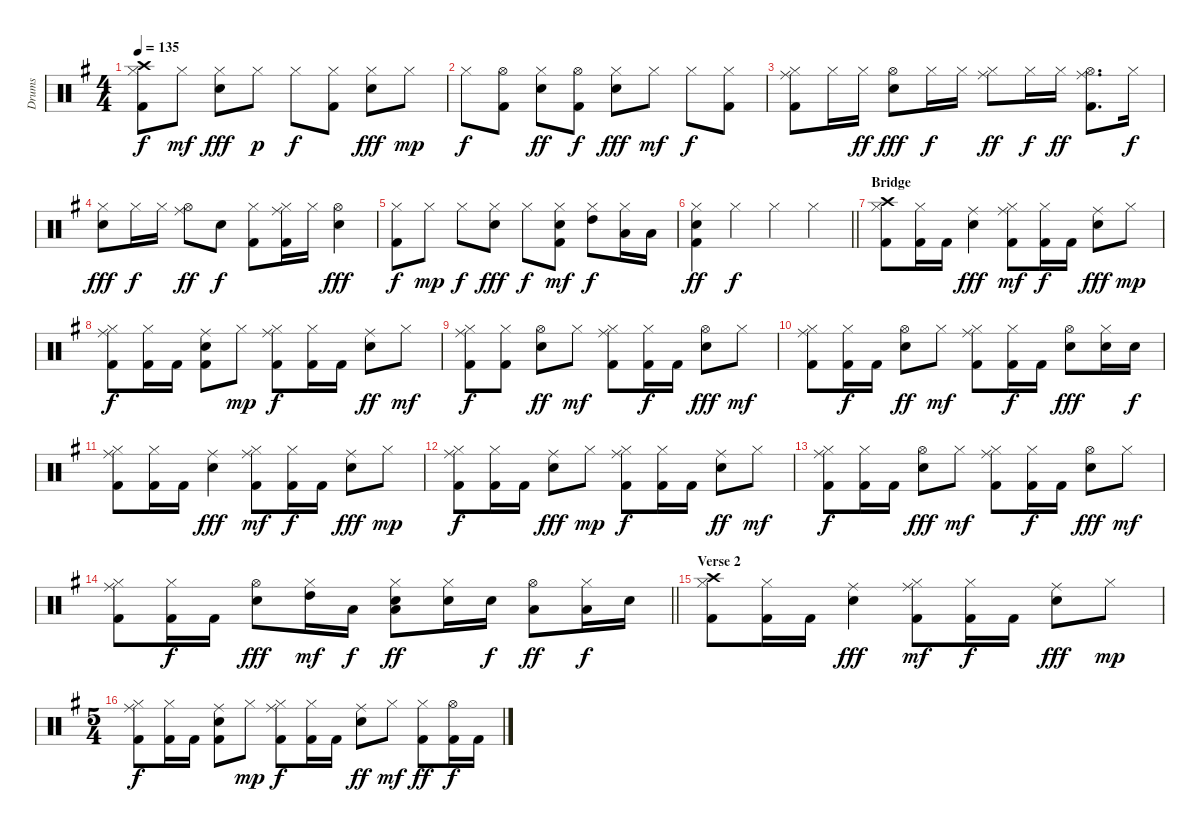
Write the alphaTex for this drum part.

\track ("Drums" "Drums") {instrument percussion}
\staff {score}
\articulation defaults
\ts (4 4)
\tempo 135
\clef neutral
\ks g
("Hi-Hat (closed)" "Crash high (hit)" "Kick (hit) 2").8{dy f} "Hi-Hat (closed)".8{dy mf} ("Hi-Hat (closed)" "Electric Snare (hit)").8{dy fff} "Hi-Hat (closed)".8{dy p} "Hi-Hat (closed)".8{dy f} ("Hi-Hat (closed)" "Kick (hit) 2").8 ("Hi-Hat (closed)" "Electric Snare (hit)").8{dy fff} "Hi-Hat (closed)".8{dy mp} |
"Hi-Hat (closed)".8{dy f} ("Hi-Hat (open)" "Kick (hit) 2").8 ("Hi-Hat (closed)" "Electric Snare (hit)").8{dy ff} ("Hi-Hat (open)" "Kick (hit) 2").8{dy f} ("Hi-Hat (closed)" "Electric Snare (hit)").8{dy fff} "Hi-Hat (closed)".8{dy mf} "Hi-Hat (closed)".8{dy f} ("Hi-Hat (closed)" "Kick (hit) 2").8 |
("Hi-Hat (closed)" "Ride (middle)" "Kick (hit) 2").8 "Hi-Hat (closed)".16 "Hi-Hat (closed)".16{dy ff} ("Hi-Hat (open)" "Electric Snare (hit)").8{dy fff} "Hi-Hat (closed)".16{dy f} "Hi-Hat (closed)".16 ("Hi-Hat (closed)" "Ride (middle)").8{dy ff} "Hi-Hat (closed)".16{dy f} "Hi-Hat (closed)".16{dy ff} ("Hi-Hat (open)" "Ride (middle)" "Kick (hit) 2").8{d} "Hi-Hat (closed)".16{dy f} |
("Hi-Hat (closed)" "Electric Snare (hit)").8{dy fff} "Hi-Hat (closed)".16{dy f} "Hi-Hat (closed)".16 ("Hi-Hat (open)" "Ride (middle)").8{dy ff} "Electric Snare (hit)".8{dy f} ("Hi-Hat (closed)" "Kick (hit) 2").8 ("Hi-Hat (closed)" "Ride (middle)" "Kick (hit) 2").16 "Hi-Hat (closed)".16 ("Hi-Hat (open)" "Electric Snare (hit)").4{dy fff} |
("Hi-Hat (closed)" "Kick (hit) 2").8{dy f} "Hi-Hat (closed)".8{dy mp} "Hi-Hat (closed)".8{dy f} ("Hi-Hat (closed)" "Electric Snare (hit)").8{dy fff} "Hi-Hat (closed)".8{dy f} ("Hi-Hat (closed)" "Electric Snare (hit)" "Kick (hit) 2").8{dy mf} ("Hi-Hat (closed)" "High Tom (hit)").8{dy f} ("Hi-Hat (closed)" "Low Tom (hit)").16 "Low Floor Tom (hit)".16 |
\barLineRight lightlight
("Hi-Hat (closed)" "Electric Snare (hit)" "Kick (hit) 2").4{dy ff} "Hi-Hat (closed)".4{dy f} "Hi-Hat (closed)".4 "Hi-Hat (closed)".4 |
\section ("" "Bridge")
("Hi-Hat (closed)" "Crash high (hit)" "Kick (hit) 2").8 ("Hi-Hat (closed)" "Kick (hit) 2").16 "Kick (hit) 2".16 ("Ride (middle)" "Electric Snare (hit)").4{dy fff} ("Hi-Hat (closed)" "Ride (middle)" "Kick (hit) 2").8{dy mf} ("Hi-Hat (closed)" "Kick (hit) 2").16{dy f} "Kick (hit) 2".16 ("Ride (middle)" "Electric Snare (hit)").8{dy fff} "Hi-Hat (closed)".8{dy mp} |
("Hi-Hat (closed)" "Ride (middle)" "Kick (hit) 2").8{dy f} ("Hi-Hat (closed)" "Kick (hit) 2").16 "Kick (hit) 2".16 ("Ride (middle)" "Electric Snare (hit)" "Kick (hit) 2").8 "Hi-Hat (closed)".8{dy mp} ("Hi-Hat (closed)" "Ride (middle)" "Kick (hit) 2").8{dy f} ("Hi-Hat (closed)" "Kick (hit) 2").16 "Kick (hit) 2".16 ("Ride (middle)" "Electric Snare (hit)").8{dy ff} "Hi-Hat (closed)".8{dy mf} |
("Hi-Hat (closed)" "Ride (middle)" "Kick (hit) 2").8{dy f} ("Hi-Hat (closed)" "Kick (hit) 2").8 ("Hi-Hat (open)" "Electric Snare (hit)").8{dy ff} "Hi-Hat (closed)".8{dy mf} ("Hi-Hat (closed)" "Ride (middle)" "Kick (hit) 2").8 ("Hi-Hat (closed)" "Kick (hit) 2").16{dy f} "Kick (hit) 2".16 ("Hi-Hat (open)" "Electric Snare (hit)").8{dy fff} "Hi-Hat (closed)".8{dy mf} |
("Hi-Hat (closed)" "Ride (middle)" "Kick (hit) 2").8 ("Hi-Hat (closed)" "Kick (hit) 2").16{dy f} "Kick (hit) 2".16 ("Hi-Hat (open)" "Electric Snare (hit)").8{dy ff} "Hi-Hat (closed)".8{dy mf} ("Hi-Hat (closed)" "Ride (middle)" "Kick (hit) 2").8 ("Hi-Hat (closed)" "Kick (hit) 2").16{dy f} "Kick (hit) 2".16 ("Hi-Hat (open)" "Electric Snare (hit)").8{dy fff} ("Hi-Hat (closed)" "Electric Snare (hit)").16 "Electric Snare (hit)".16{dy f} |
("Hi-Hat (closed)" "Ride (middle)" "Kick (hit) 2").8 ("Hi-Hat (closed)" "Kick (hit) 2").16 "Kick (hit) 2".16 ("Ride (middle)" "Electric Snare (hit)").4{dy fff} ("Hi-Hat (closed)" "Ride (middle)" "Kick (hit) 2").8{dy mf} ("Hi-Hat (closed)" "Kick (hit) 2").16{dy f} "Kick (hit) 2".16 ("Ride (middle)" "Electric Snare (hit)").8{dy fff} "Hi-Hat (closed)".8{dy mp} |
("Hi-Hat (closed)" "Ride (middle)" "Kick (hit) 2").8{dy f} ("Hi-Hat (closed)" "Kick (hit) 2").16 "Kick (hit) 2".16 ("Ride (middle)" "Electric Snare (hit)").8{dy fff} "Hi-Hat (closed)".8{dy mp} ("Hi-Hat (closed)" "Ride (middle)" "Kick (hit) 2").8{dy f} ("Hi-Hat (closed)" "Kick (hit) 2").16 "Kick (hit) 2".16 ("Ride (middle)" "Electric Snare (hit)").8{dy ff} "Hi-Hat (closed)".8{dy mf} |
("Hi-Hat (closed)" "Ride (middle)" "Kick (hit) 2").8{dy f} ("Hi-Hat (closed)" "Kick (hit) 2").16 "Kick (hit) 2".16 ("Hi-Hat (open)" "Electric Snare (hit)").8{dy fff} "Hi-Hat (closed)".8{dy mf} ("Hi-Hat (closed)" "Ride (middle)" "Kick (hit) 2").8 ("Hi-Hat (closed)" "Kick (hit) 2").16{dy f} "Kick (hit) 2".16 ("Hi-Hat (open)" "Electric Snare (hit)").8{dy fff} "Hi-Hat (closed)".8{dy mf} |
\barLineRight lightlight
("Hi-Hat (closed)" "Ride (middle)" "Kick (hit) 2").8 ("Hi-Hat (closed)" "Kick (hit) 2").16{dy f} "Kick (hit) 2".16 ("Hi-Hat (open)" "Electric Snare (hit)").8{dy fff} ("Hi-Hat (closed)" "High Tom (hit)").16{dy mf} "Low Tom (hit)".16{dy f} ("Hi-Hat (closed)" "Electric Snare (hit)" "Low Floor Tom (hit)").8{dy ff} ("Hi-Hat (closed)" "Electric Snare (hit)").16 "Electric Snare (hit)".16{dy f} ("Hi-Hat (open)" "Low Tom (hit)").8{dy ff} ("Hi-Hat (closed)" "Low Tom (hit)").16{dy f} "Electric Snare (hit)".16 |
\section ("" "Verse 2")
("Hi-Hat (closed)" "Crash high (hit)" "Kick (hit) 2").8 ("Hi-Hat (closed)" "Kick (hit) 2").16 "Kick (hit) 2".16 ("Ride (middle)" "Electric Snare (hit)").4{dy fff} ("Hi-Hat (closed)" "Ride (middle)" "Kick (hit) 2").8{dy mf} ("Hi-Hat (closed)" "Kick (hit) 2").16{dy f} "Kick (hit) 2".16 ("Ride (middle)" "Electric Snare (hit)").8{dy fff} "Hi-Hat (closed)".8{dy mp} |
\ts (5 4)
("Hi-Hat (closed)" "Ride (middle)" "Kick (hit) 2").8{dy f} ("Hi-Hat (closed)" "Kick (hit) 2").16 "Kick (hit) 2".16 ("Ride (middle)" "Electric Snare (hit)" "Kick (hit) 2").8 "Hi-Hat (closed)".8{dy mp} ("Hi-Hat (closed)" "Ride (middle)" "Kick (hit) 2").8{dy f} ("Hi-Hat (closed)" "Kick (hit) 2").16 "Kick (hit) 2".16 ("Ride (middle)" "Electric Snare (hit)").8{dy ff} "Hi-Hat (closed)".8{dy mf} ("Hi-Hat (closed)" "Kick (hit) 2").8{dy ff} ("Hi-Hat (open)" "Kick (hit) 2").16{dy f} "Kick (hit) 2".16
